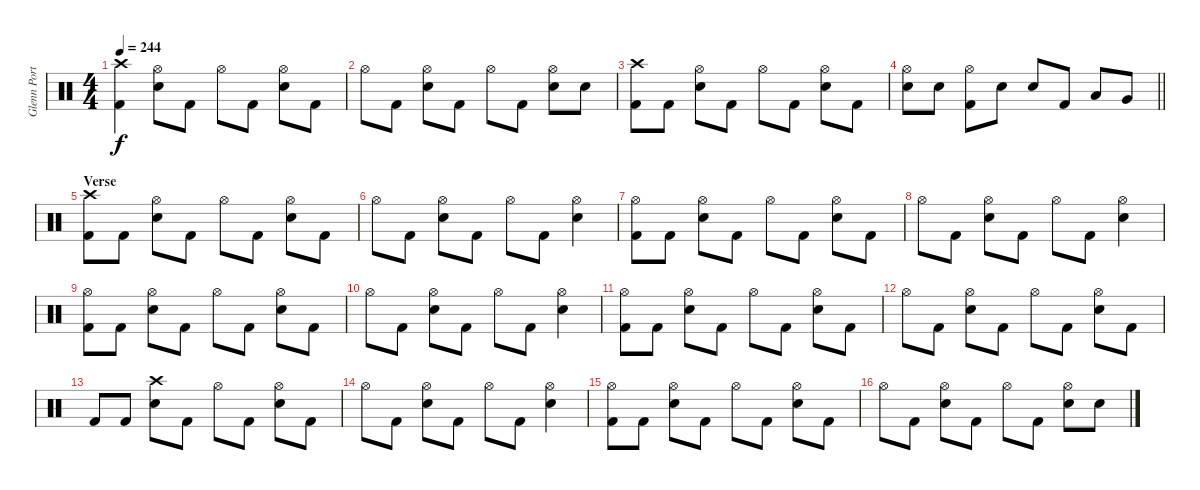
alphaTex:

\track ("Glenn Porter - Drums" "Glenn Port") {instrument percussion}
\staff {score}
\articulation defaults
\ts (4 4)
\tempo 244
\clef neutral
\ks c
("Kick (hit) 2" "Crash high (hit)").4{dy f} ("Snare (hit) 2" "Hi-Hat (open)").8 "Kick (hit) 2".8 "Hi-Hat (open)".8 "Kick (hit) 2".8 ("Snare (hit) 2" "Hi-Hat (open)").8 "Kick (hit) 2".8 |
"Hi-Hat (open)".8 "Kick (hit) 2".8 ("Snare (hit) 2" "Hi-Hat (open)").8 "Kick (hit) 2".8 "Hi-Hat (open)".8 "Kick (hit) 2".8 ("Snare (hit) 2" "Hi-Hat (open)").8 "Snare (hit) 2".8 |
("Kick (hit) 2" "Crash high (hit)").8 "Kick (hit) 2".8 ("Snare (hit) 2" "Hi-Hat (open)").8 "Kick (hit) 2".8 "Hi-Hat (open)".8 "Kick (hit) 2".8 ("Snare (hit) 2" "Hi-Hat (open)").8 "Kick (hit) 2".8 |
\barLineRight lightlight
("Snare (hit) 2" "Hi-Hat (open)").8 "Snare (hit) 2".8 ("Hi-Hat (open)" "Kick (hit) 2").8 "Snare (hit) 2".8 "Snare (hit) 2".8 "Kick (hit) 2".8 "Low Tom (hit)".8 "Very Low Tom (hit)".8 |
\section ("" "Verse")
("Kick (hit) 2" "Crash high (hit)").8 "Kick (hit) 2".8 ("Snare (hit) 2" "Hi-Hat (open)").8 "Kick (hit) 2".8 "Hi-Hat (open)".8 "Kick (hit) 2".8 ("Snare (hit) 2" "Hi-Hat (open)").8 "Kick (hit) 2".8 |
"Hi-Hat (open)".8 "Kick (hit) 2".8 ("Snare (hit) 2" "Hi-Hat (open)").8 "Kick (hit) 2".8 "Hi-Hat (open)".8 "Kick (hit) 2".8 ("Snare (hit) 2" "Hi-Hat (open)").4 |
("Kick (hit) 2" "Hi-Hat (open)").8 "Kick (hit) 2".8 ("Snare (hit) 2" "Hi-Hat (open)").8 "Kick (hit) 2".8 "Hi-Hat (open)".8 "Kick (hit) 2".8 ("Snare (hit) 2" "Hi-Hat (open)").8 "Kick (hit) 2".8 |
"Hi-Hat (open)".8 "Kick (hit) 2".8 ("Snare (hit) 2" "Hi-Hat (open)").8 "Kick (hit) 2".8 "Hi-Hat (open)".8 "Kick (hit) 2".8 ("Snare (hit) 2" "Hi-Hat (open)").4 |
("Kick (hit) 2" "Hi-Hat (open)").8 "Kick (hit) 2".8 ("Snare (hit) 2" "Hi-Hat (open)").8 "Kick (hit) 2".8 "Hi-Hat (open)".8 "Kick (hit) 2".8 ("Snare (hit) 2" "Hi-Hat (open)").8 "Kick (hit) 2".8 |
"Hi-Hat (open)".8 "Kick (hit) 2".8 ("Snare (hit) 2" "Hi-Hat (open)").8 "Kick (hit) 2".8 "Hi-Hat (open)".8 "Kick (hit) 2".8 ("Snare (hit) 2" "Hi-Hat (open)").4 |
("Kick (hit) 2" "Hi-Hat (open)").8 "Kick (hit) 2".8 ("Snare (hit) 2" "Hi-Hat (open)").8 "Kick (hit) 2".8 "Hi-Hat (open)".8 "Kick (hit) 2".8 ("Snare (hit) 2" "Hi-Hat (open)").8 "Kick (hit) 2".8 |
"Hi-Hat (open)".8 "Kick (hit) 2".8 ("Snare (hit) 2" "Hi-Hat (open)").8 "Kick (hit) 2".8 "Hi-Hat (open)".8 "Kick (hit) 2".8 ("Snare (hit) 2" "Hi-Hat (open)").8 "Kick (hit) 2".8 |
"Kick (hit) 2".8 "Kick (hit) 2".8 ("Snare (hit) 2" "Crash high (hit)").8 "Kick (hit) 2".8 "Hi-Hat (open)".8 "Kick (hit) 2".8 ("Snare (hit) 2" "Hi-Hat (open)").8 "Kick (hit) 2".8 |
"Hi-Hat (open)".8 "Kick (hit) 2".8 ("Snare (hit) 2" "Hi-Hat (open)").8 "Kick (hit) 2".8 "Hi-Hat (open)".8 "Kick (hit) 2".8 ("Snare (hit) 2" "Hi-Hat (open)").4 |
("Kick (hit) 2" "Hi-Hat (open)").8 "Kick (hit) 2".8 ("Snare (hit) 2" "Hi-Hat (open)").8 "Kick (hit) 2".8 "Hi-Hat (open)".8 "Kick (hit) 2".8 ("Snare (hit) 2" "Hi-Hat (open)").8 "Kick (hit) 2".8 |
"Hi-Hat (open)".8 "Kick (hit) 2".8 ("Snare (hit) 2" "Hi-Hat (open)").8 "Kick (hit) 2".8 "Hi-Hat (open)".8 "Kick (hit) 2".8 ("Snare (hit) 2" "Hi-Hat (open)").8 "Snare (hit) 2".8
